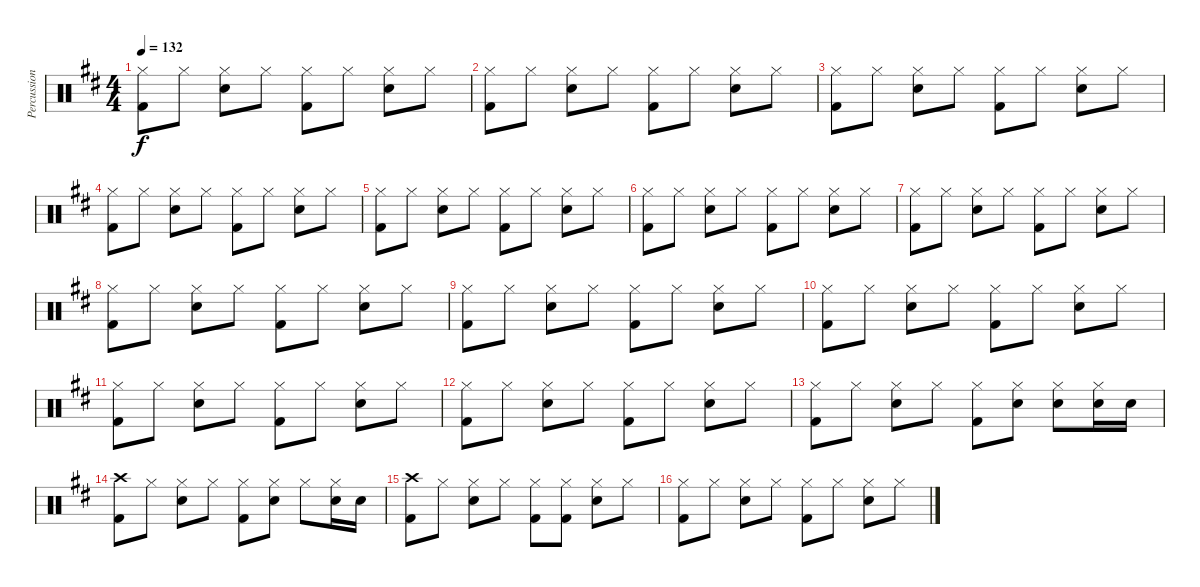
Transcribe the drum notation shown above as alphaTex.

\track ("Percussion" "Percussion") {instrument percussion}
\staff {score}
\articulation defaults
\ts (4 4)
\tempo 132
\clef neutral
\ks d
("Hi-Hat (closed)" "Kick (hit) 2").8{dy f} "Hi-Hat (closed)".8 ("Hi-Hat (closed)" "Electric Snare (hit)").8 "Hi-Hat (closed)".8 ("Hi-Hat (closed)" "Kick (hit) 2").8 "Hi-Hat (closed)".8 ("Hi-Hat (closed)" "Electric Snare (hit)").8 "Hi-Hat (closed)".8 |
("Hi-Hat (closed)" "Kick (hit) 2").8 "Hi-Hat (closed)".8 ("Hi-Hat (closed)" "Electric Snare (hit)").8 "Hi-Hat (closed)".8 ("Hi-Hat (closed)" "Kick (hit) 2").8 "Hi-Hat (closed)".8 ("Hi-Hat (closed)" "Electric Snare (hit)").8 "Hi-Hat (closed)".8 |
("Hi-Hat (closed)" "Kick (hit) 2").8 "Hi-Hat (closed)".8 ("Hi-Hat (closed)" "Electric Snare (hit)").8 "Hi-Hat (closed)".8 ("Hi-Hat (closed)" "Kick (hit) 2").8 "Hi-Hat (closed)".8 ("Hi-Hat (closed)" "Electric Snare (hit)").8 "Hi-Hat (closed)".8 |
("Hi-Hat (closed)" "Kick (hit) 2").8 "Hi-Hat (closed)".8 ("Hi-Hat (closed)" "Electric Snare (hit)").8 "Hi-Hat (closed)".8 ("Hi-Hat (closed)" "Kick (hit) 2").8 "Hi-Hat (closed)".8 ("Hi-Hat (closed)" "Electric Snare (hit)").8 "Hi-Hat (closed)".8 |
("Hi-Hat (closed)" "Kick (hit) 2").8 "Hi-Hat (closed)".8 ("Hi-Hat (closed)" "Electric Snare (hit)").8 "Hi-Hat (closed)".8 ("Hi-Hat (closed)" "Kick (hit) 2").8 "Hi-Hat (closed)".8 ("Hi-Hat (closed)" "Electric Snare (hit)").8 "Hi-Hat (closed)".8 |
("Hi-Hat (closed)" "Kick (hit) 2").8 "Hi-Hat (closed)".8 ("Hi-Hat (closed)" "Electric Snare (hit)").8 "Hi-Hat (closed)".8 ("Hi-Hat (closed)" "Kick (hit) 2").8 "Hi-Hat (closed)".8 ("Hi-Hat (closed)" "Electric Snare (hit)").8 "Hi-Hat (closed)".8 |
("Hi-Hat (closed)" "Kick (hit) 2").8 "Hi-Hat (closed)".8 ("Hi-Hat (closed)" "Electric Snare (hit)").8 "Hi-Hat (closed)".8 ("Hi-Hat (closed)" "Kick (hit) 2").8 "Hi-Hat (closed)".8 ("Hi-Hat (closed)" "Electric Snare (hit)").8 "Hi-Hat (closed)".8 |
("Hi-Hat (closed)" "Kick (hit) 2").8 "Hi-Hat (closed)".8 ("Hi-Hat (closed)" "Electric Snare (hit)").8 "Hi-Hat (closed)".8 ("Hi-Hat (closed)" "Kick (hit) 2").8 "Hi-Hat (closed)".8 ("Hi-Hat (closed)" "Electric Snare (hit)").8 "Hi-Hat (closed)".8 |
("Hi-Hat (closed)" "Kick (hit) 2").8 "Hi-Hat (closed)".8 ("Hi-Hat (closed)" "Electric Snare (hit)").8 "Hi-Hat (closed)".8 ("Hi-Hat (closed)" "Kick (hit) 2").8 "Hi-Hat (closed)".8 ("Hi-Hat (closed)" "Electric Snare (hit)").8 "Hi-Hat (closed)".8 |
("Hi-Hat (closed)" "Kick (hit) 2").8 "Hi-Hat (closed)".8 ("Hi-Hat (closed)" "Electric Snare (hit)").8 "Hi-Hat (closed)".8 ("Hi-Hat (closed)" "Kick (hit) 2").8 "Hi-Hat (closed)".8 ("Hi-Hat (closed)" "Electric Snare (hit)").8 "Hi-Hat (closed)".8 |
("Hi-Hat (closed)" "Kick (hit) 2").8 "Hi-Hat (closed)".8 ("Hi-Hat (closed)" "Electric Snare (hit)").8 "Hi-Hat (closed)".8 ("Hi-Hat (closed)" "Kick (hit) 2").8 "Hi-Hat (closed)".8 ("Hi-Hat (closed)" "Electric Snare (hit)").8 "Hi-Hat (closed)".8 |
("Hi-Hat (closed)" "Kick (hit) 2").8 "Hi-Hat (closed)".8 ("Hi-Hat (closed)" "Electric Snare (hit)").8 "Hi-Hat (closed)".8 ("Hi-Hat (closed)" "Kick (hit) 2").8 "Hi-Hat (closed)".8 ("Hi-Hat (closed)" "Electric Snare (hit)").8 "Hi-Hat (closed)".8 |
("Hi-Hat (closed)" "Kick (hit) 2").8 "Hi-Hat (closed)".8 ("Hi-Hat (closed)" "Electric Snare (hit)").8 "Hi-Hat (closed)".8 ("Hi-Hat (closed)" "Kick (hit) 2").8 ("Hi-Hat (closed)" "Electric Snare (hit)").8 ("Hi-Hat (closed)" "Electric Snare (hit)").8 ("Hi-Hat (closed)" "Electric Snare (hit)").16 "Electric Snare (hit)".16 |
("Crash high (hit)" "Kick (hit) 2").8 "Hi-Hat (closed)".8 ("Hi-Hat (closed)" "Electric Snare (hit)").8 "Hi-Hat (closed)".8 ("Hi-Hat (closed)" "Kick (hit) 2").8 ("Hi-Hat (closed)" "Electric Snare (hit)").8 "Hi-Hat (closed)".8 ("Hi-Hat (closed)" "Electric Snare (hit)").16 "Electric Snare (hit)".16 |
("Crash high (hit)" "Kick (hit) 2").8 "Hi-Hat (closed)".8 ("Hi-Hat (closed)" "Electric Snare (hit)").8 "Hi-Hat (closed)".8 ("Hi-Hat (closed)" "Kick (hit) 2").8 ("Hi-Hat (closed)" "Kick (hit) 2").8 ("Hi-Hat (closed)" "Electric Snare (hit)").8 "Hi-Hat (closed)".8 |
("Hi-Hat (closed)" "Kick (hit) 2").8 "Hi-Hat (closed)".8 ("Hi-Hat (closed)" "Electric Snare (hit)").8 "Hi-Hat (closed)".8 ("Hi-Hat (closed)" "Kick (hit) 2").8 "Hi-Hat (closed)".8 ("Hi-Hat (closed)" "Electric Snare (hit)").8 "Hi-Hat (closed)".8
